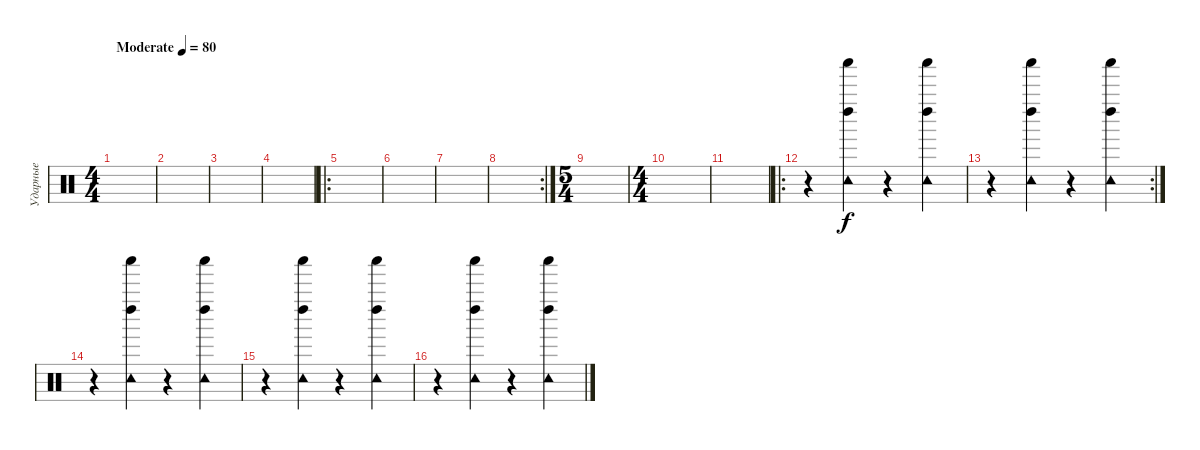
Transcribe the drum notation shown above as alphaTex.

\track ("Ударные" "Ударные") {instrument percussion}
\staff {score}
\articulation defaults
\ts (4 4)
\tempo (80 "Moderate")
\clef neutral
\ks c
|
|
|
|
\ro
|
|
|
\rc 2
|
\ts (5 4)
|
\ts (4 4)
|
|
\ro
r.4 ("Shaker (hit)" "Left Maraca (hit)" "Tambourine (hit)").4 r.4 ("Shaker (hit)" "Left Maraca (hit)" "Tambourine (hit)").4 |
\rc 2
r.4 ("Shaker (hit)" "Left Maraca (hit)" "Tambourine (hit)").4 r.4 ("Shaker (hit)" "Left Maraca (hit)" "Tambourine (hit)").4 |
r.4 ("Shaker (hit)" "Left Maraca (hit)" "Tambourine (hit)").4 r.4 ("Shaker (hit)" "Left Maraca (hit)" "Tambourine (hit)").4 |
r.4 ("Shaker (hit)" "Left Maraca (hit)" "Tambourine (hit)").4 r.4 ("Shaker (hit)" "Left Maraca (hit)" "Tambourine (hit)").4 |
r.4 ("Shaker (hit)" "Left Maraca (hit)" "Tambourine (hit)").4 r.4 ("Shaker (hit)" "Left Maraca (hit)" "Tambourine (hit)").4
